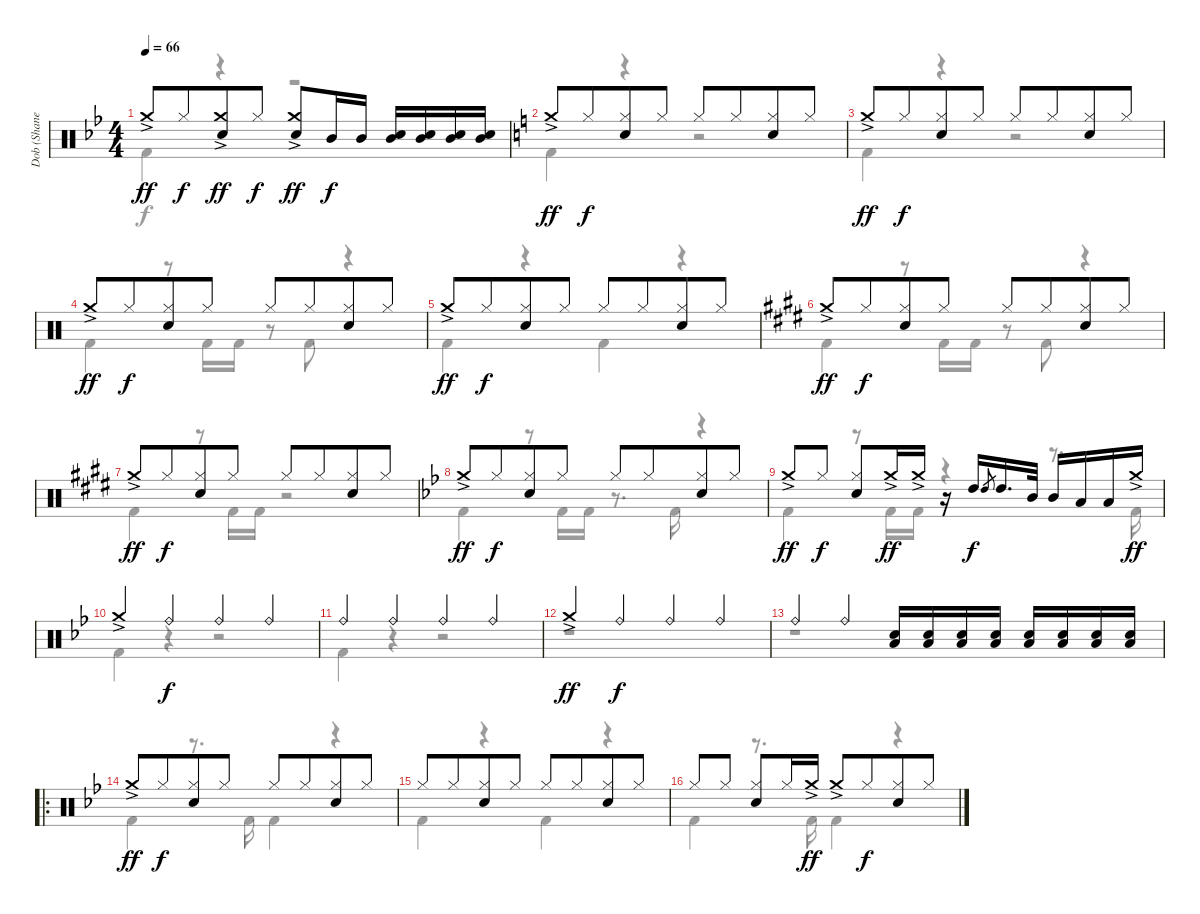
\track ("Dob (Shane Gaalaas)" "Dob (Shane") {instrument percussion}
\staff {score}
\articulation defaults
\voice
\ts (4 4)
\tempo 66
\clef neutral
\ks bb "Crash medium (hit)"{ac}.8{dy ff} "Hi-Hat (closed)".8{dy f beam merge}
("Crash medium (hit)"{ac} "Electric Snare (hit)").8{dy ff} "Hi-Hat (closed)".8{dy f} ("Crash medium (hit)"{ac} "Electric Snare (hit)").8{dy ff} "Mid Tom (hit)".16{dy f} "Mid Tom (hit)".16 ("Mid Tom (hit)" "Electric Snare (hit)").16 ("Mid Tom (hit)" "Electric Snare (hit)").16 ("Mid Tom (hit)" "Electric Snare (hit)").16 ("Mid Tom (hit)" "Electric Snare (hit)").16 |
\ks c "Crash medium (hit)"{ac}.8{dy ff} "Hi-Hat (closed)".8{dy f beam merge}
("Hi-Hat (closed)" "Electric Snare (hit)").8 "Hi-Hat (closed)".8 "Hi-Hat (closed)".8 "Hi-Hat (closed)".8{beam merge} ("Hi-Hat (closed)" "Electric Snare (hit)").8 "Hi-Hat (closed)".8 |
"Crash medium (hit)"{ac}.8{dy ff} "Hi-Hat (closed)".8{dy f beam merge} ("Hi-Hat (closed)" "Electric Snare (hit)").8 "Hi-Hat (closed)".8 "Hi-Hat (closed)".8 "Hi-Hat (closed)".8{beam merge} ("Hi-Hat (closed)" "Electric Snare (hit)").8 "Hi-Hat (closed)".8 |
"Crash medium (hit)"{ac}.8{dy ff} "Hi-Hat (closed)".8{dy f beam merge} ("Hi-Hat (closed)" "Electric Snare (hit)").8 "Hi-Hat (closed)".8 "Hi-Hat (closed)".8 "Hi-Hat (closed)".8{beam merge} ("Hi-Hat (closed)" "Electric Snare (hit)").8 "Hi-Hat (closed)".8 |
"Crash medium (hit)"{ac}.8{dy ff} "Hi-Hat (closed)".8{dy f beam merge} ("Hi-Hat (closed)" "Electric Snare (hit)").8 "Hi-Hat (closed)".8 "Hi-Hat (closed)".8 "Hi-Hat (closed)".8{beam merge} ("Hi-Hat (closed)" "Electric Snare (hit)").8 "Hi-Hat (closed)".8 |
\ks e "Crash medium (hit)"{ac}.8{dy ff} "Hi-Hat (closed)".8{dy f beam merge}
("Hi-Hat (closed)" "Electric Snare (hit)").8 "Hi-Hat (closed)".8 "Hi-Hat (closed)".8 "Hi-Hat (closed)".8{beam merge} ("Hi-Hat (closed)" "Electric Snare (hit)").8 "Hi-Hat (closed)".8 |
"Crash medium (hit)"{ac}.8{dy ff} "Hi-Hat (closed)".8{dy f beam merge} ("Hi-Hat (closed)" "Electric Snare (hit)").8 "Hi-Hat (closed)".8 "Hi-Hat (closed)".8 "Hi-Hat (closed)".8{beam merge} ("Hi-Hat (closed)" "Electric Snare (hit)").8 "Hi-Hat (closed)".8 |
\ks bb "Crash medium (hit)"{ac}.8{dy ff} "Hi-Hat (closed)".8{dy f beam merge}
("Hi-Hat (closed)" "Electric Snare (hit)").8 "Hi-Hat (closed)".8 "Hi-Hat (closed)".8 "Hi-Hat (closed)".8{beam merge} ("Hi-Hat (closed)" "Electric Snare (hit)").8 "Hi-Hat (closed)".8 |
"Crash medium (hit)"{ac}.8{dy ff} "Hi-Hat (closed)".8{dy f} ("Hi-Hat (closed)" "Electric Snare (hit)").8 "Crash medium (hit)"{ac}.16{dy ff} "Crash medium (hit)"{ac}.16 r.16 "High Tom (hit)".16{dy f} "High Tom (hit)".8{gr} "High Tom (hit)".16{d} "Mid Tom (hit)".32 "Mid Tom (hit)".16 "Low Tom (hit)".16 "Low Tom (hit)".16 "Crash medium (hit)"{ac}.16{dy ff} |
"Crash medium (hit)"{ac}.4 "Ride (bell)".4{dy f} "Ride (bell)".4 "Ride (bell)".4 |
"Ride (bell)".4 "Ride (bell)".4 "Ride (bell)".4 "Ride (bell)".4 |
"Crash medium (hit)"{ac}.4{dy ff} "Ride (bell)".4{dy f} "Ride (bell)".4 "Ride (bell)".4 |
"Ride (bell)".4 "Ride (bell)".4 ("Electric Snare (hit)" "Low Tom (hit)").16 ("Electric Snare (hit)" "Low Tom (hit)").16 ("Electric Snare (hit)" "Low Tom (hit)").16 ("Electric Snare (hit)" "Low Tom (hit)").16 ("Electric Snare (hit)" "Low Tom (hit)").16 ("Electric Snare (hit)" "Low Tom (hit)").16 ("Electric Snare (hit)" "Low Tom (hit)").16 ("Electric Snare (hit)" "Low Tom (hit)").16 |
\ro "Crash medium (hit)"{ac}.8{dy ff beam merge} "Hi-Hat (closed)".8{dy f beam merge}
("Hi-Hat (closed)" "Electric Snare (hit)").8 "Hi-Hat (closed)".8 "Hi-Hat (closed)".8 "Hi-Hat (closed)".8{beam merge} ("Hi-Hat (closed)" "Electric Snare (hit)").8 "Hi-Hat (closed)".8 |
"Hi-Hat (closed)".8 "Hi-Hat (closed)".8{beam merge} ("Hi-Hat (closed)" "Electric Snare (hit)").8 "Hi-Hat (closed)".8 "Hi-Hat (closed)".8 "Hi-Hat (closed)".8{beam merge} ("Hi-Hat (closed)" "Electric Snare (hit)").8 "Hi-Hat (closed)".8 |
"Hi-Hat (closed)".8 "Hi-Hat (closed)".8{beam split} ("Hi-Hat (closed)" "Electric Snare (hit)").8 "Hi-Hat (closed)".16 "Crash medium (hit)"{ac}.16{dy ff} "Crash medium (hit)"{ac}.8{beam merge} "Hi-Hat (closed)".8{dy f beam merge} ("Hi-Hat (closed)" "Electric Snare (hit)").8 "Hi-Hat (closed)".8
\voice
\clef neutral
\ottava regular
\simile none
\ks bb "Kick (hit) 2".4{dy f}
r.4 r.2 |
\ks c "Kick (hit) 2".4
r.4 r.2 |
"Kick (hit) 2".4 r.4 r.2 |
"Kick (hit) 2".4 r.8 "Kick (hit) 2".16 "Kick (hit) 2".16 r.8 "Kick (hit) 2".8 r.4 |
"Kick (hit) 2".4 r.4 "Kick (hit) 2".4 r.4 |
\ks e "Kick (hit) 2".4
r.8 "Kick (hit) 2".16 "Kick (hit) 2".16 r.8 "Kick (hit) 2".8 r.4 |
"Kick (hit) 2".4 r.8 "Kick (hit) 2".16 "Kick (hit) 2".16 r.2 |
\ks bb "Kick (hit) 2".4
r.8 "Kick (hit) 2".16 "Kick (hit) 2".16 r.8{d} "Kick (hit) 2".16 r.4 |
"Kick (hit) 2".4 r.8 "Kick (hit) 2".16 "Kick (hit) 2".16 r.4 r.8{d} "Kick (hit) 2".16 |
"Kick (hit) 2".4 r.4 r.2 |
"Kick (hit) 2".4 r.4 r.2 |
r.1 |
r.1 |
"Kick (hit) 2".4 r.8{d} "Kick (hit) 2".16 "Kick (hit) 2".4 r.4 |
"Kick (hit) 2".4 r.4 "Kick (hit) 2".4 r.4 |
"Kick (hit) 2".4 r.8{d} "Kick (hit) 2".16 "Kick (hit) 2".4 r.4
